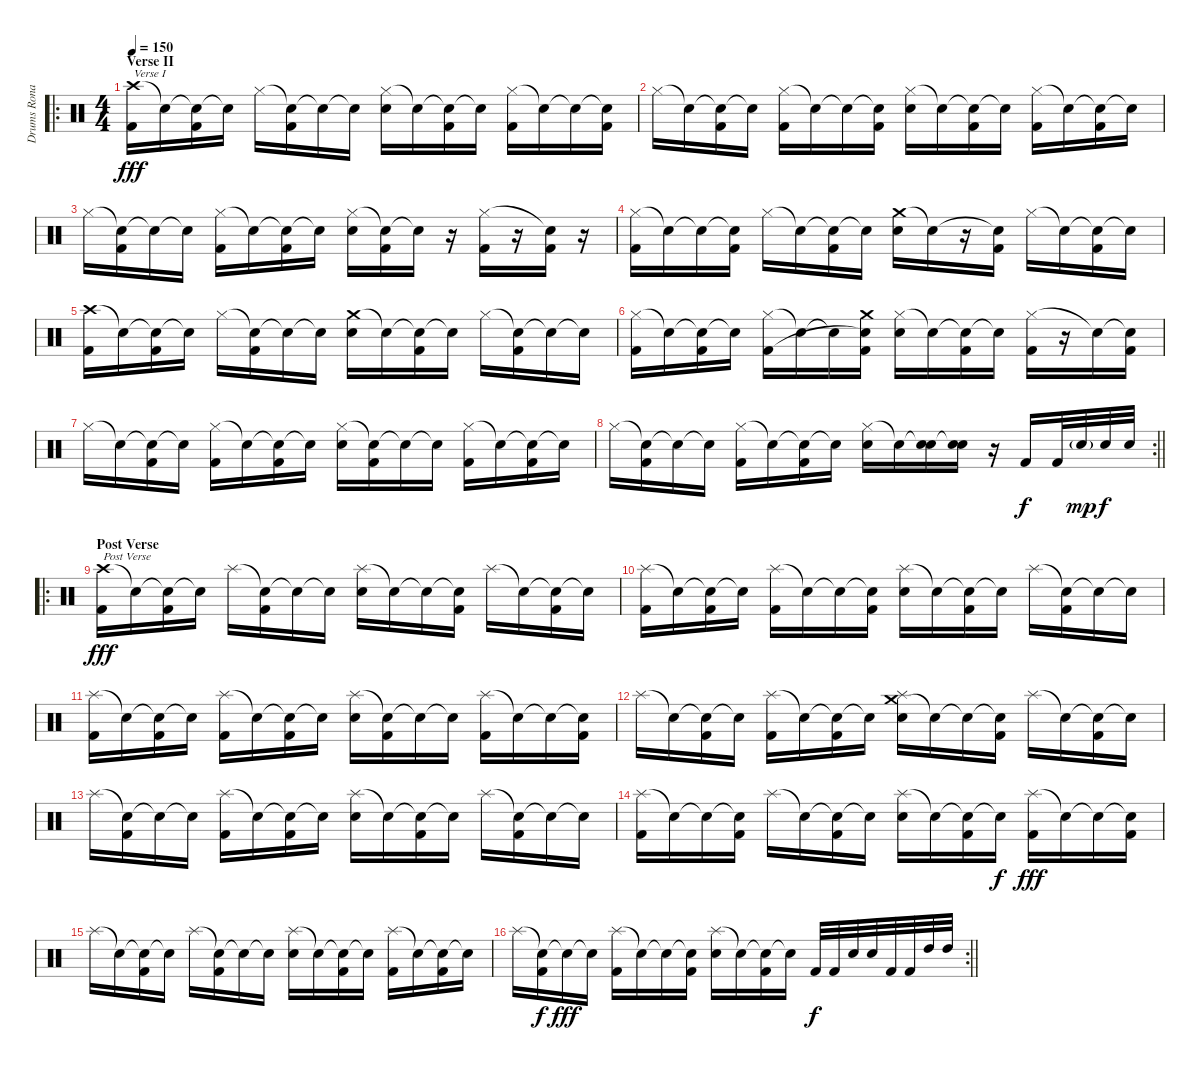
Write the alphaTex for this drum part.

\track ("Drums Ronald Reagen FTW" "Drums Rona") {instrument percussion}
\staff {score}
\articulation defaults
\ro
\ts (4 4)
\section ("" "Verse II")
\tempo 150
\clef neutral
\ks c
("Crash high (hit)" "Kick (hit) 2").16{txt "Verse I" dy fff} "Snare (hit)"{t}.16 ("Snare (hit)"{t} "Kick (hit) 2").16 "Snare (hit)"{t}.16 "Hi-Hat (closed)".16 ("Snare (hit)"{t} "Kick (hit) 2").16 "Snare (hit)"{t}.16 "Snare (hit)"{t}.16 ("Hi-Hat (closed)" "Electric Snare (hit)").16 "Snare (hit)"{t}.16 ("Snare (hit)"{t} "Kick (hit) 2").16 "Snare (hit)"{t}.16 ("Hi-Hat (closed)" "Kick (hit) 2").16 "Snare (hit)"{t}.16 "Snare (hit)"{t}.16 ("Snare (hit)"{t} "Kick (hit) 2").16 |
"Hi-Hat (closed)".16 "Snare (hit)"{t}.16 ("Snare (hit)"{t} "Kick (hit) 2").16 "Snare (hit)"{t}.16 ("Hi-Hat (closed)" "Kick (hit) 2").16 "Snare (hit)"{t}.16 "Snare (hit)"{t}.16 ("Snare (hit)"{t} "Kick (hit) 2").16 ("Hi-Hat (closed)" "Electric Snare (hit)").16 "Snare (hit)"{t}.16 ("Snare (hit)"{t} "Kick (hit) 2").16 "Snare (hit)"{t}.16 ("Hi-Hat (closed)" "Kick (hit) 2").16 "Snare (hit)"{t}.16 ("Snare (hit)"{t} "Kick (hit) 2").16 "Snare (hit)"{t}.16 |
"Hi-Hat (closed)".16 ("Snare (hit)"{t} "Kick (hit) 2").16 "Snare (hit)"{t}.16 "Snare (hit)"{t}.16 ("Hi-Hat (closed)" "Kick (hit) 2").16 "Snare (hit)"{t}.16 ("Snare (hit)"{t} "Kick (hit) 2").16 "Snare (hit)"{t}.16 ("Hi-Hat (closed)" "Electric Snare (hit)").16 ("Snare (hit)"{t} "Kick (hit) 2").16 "Snare (hit)"{t}.16 r.16 ("Hi-Hat (closed)" "Kick (hit) 2").16 r.16 ("Snare (hit)"{t} "Kick (hit) 2").16 r.16 |
("Hi-Hat (closed)" "Kick (hit) 2").16 "Snare (hit)"{t}.16 "Snare (hit)"{t}.16 ("Snare (hit)"{t} "Kick (hit) 2").16 "Hi-Hat (closed)".16 "Snare (hit)"{t}.16 ("Snare (hit)"{t} "Kick (hit) 2").16 "Snare (hit)"{t}.16 ("Crash medium (hit)" "Electric Snare (hit)").16 "Snare (hit)"{t}.16 r.16 ("Snare (hit)"{t} "Kick (hit) 2").16 "Hi-Hat (closed)".16 "Snare (hit)"{t}.16 ("Snare (hit)"{t} "Kick (hit) 2").16 "Snare (hit)"{t}.16 |
("Crash high (hit)" "Kick (hit) 2").16 "Snare (hit)"{t}.16 ("Snare (hit)"{t} "Kick (hit) 2").16 "Snare (hit)"{t}.16 "Hi-Hat (closed)".16 ("Snare (hit)"{t} "Kick (hit) 2").16 "Snare (hit)"{t}.16 "Snare (hit)"{t}.16 ("Crash medium (hit)" "Electric Snare (hit)").16 "Snare (hit)"{t}.16 ("Snare (hit)"{t} "Kick (hit) 2").16 "Snare (hit)"{t}.16 "Hi-Hat (closed)".16 ("Snare (hit)"{t} "Kick (hit) 2").16 "Snare (hit)"{t}.16 "Snare (hit)"{t}.16 |
("Hi-Hat (closed)" "Kick (hit) 2").16 "Snare (hit)"{t}.16 ("Snare (hit)"{t} "Kick (hit) 2").16 "Snare (hit)"{t}.16 ("Hi-Hat (closed)" "Kick (hit) 2").16 "Snare (hit)"{t}.16 "Snare (hit)"{t}.16 ("Crash medium (hit)" "Snare (hit)"{t} "Kick (hit) 2").16 ("Hi-Hat (closed)" "Electric Snare (hit)").16 "Snare (hit)"{t}.16 ("Snare (hit)"{t} "Kick (hit) 2").16 "Snare (hit)"{t}.16 ("Hi-Hat (closed)" "Kick (hit) 2").16 r.16 "Snare (hit)"{t}.16 ("Snare (hit)"{t} "Kick (hit) 2").16 |
"Hi-Hat (closed)".16 "Snare (hit)"{t}.16 ("Snare (hit)"{t} "Kick (hit) 2").16 "Snare (hit)"{t}.16 ("Hi-Hat (closed)" "Kick (hit) 2").16 "Snare (hit)"{t}.16 ("Snare (hit)"{t} "Kick (hit) 2").16 "Snare (hit)"{t}.16 ("Hi-Hat (closed)" "Electric Snare (hit)").16 ("Snare (hit)"{t} "Kick (hit) 2").16 "Snare (hit)"{t}.16 "Snare (hit)"{t}.16 ("Hi-Hat (closed)" "Kick (hit) 2").16 "Snare (hit)"{t}.16 ("Snare (hit)"{t} "Kick (hit) 2").16 "Snare (hit)"{t}.16 |
\rc 2
\barLineRight lightlight "Hi-Hat (closed)".16
("Snare (hit)"{t} "Kick (hit) 2").16 "Snare (hit)"{t}.16 "Snare (hit)"{t}.16 ("Hi-Hat (closed)" "Kick (hit) 2").16 "Snare (hit)"{t}.16 ("Snare (hit)"{t} "Kick (hit) 2").16 "Snare (hit)"{t}.16 ("Hi-Hat (closed)" "Electric Snare (hit)").16 "Snare (hit)"{t}.16 ("Snare (hit)"{t} "Electric Snare (hit)").16 ("Snare (hit)"{t} "Electric Snare (hit)").16 r.16 "Kick (hit) 2".16{dy f} "Kick (hit) 2".32 "Electric Snare (hit)"{g}.32{dy mp} "Electric Snare (hit)".32{dy f} "Electric Snare (hit)".32 |
\ro
\section ("" "Post Verse")
("Crash high (hit)" "Kick (hit) 2").16{txt "Post Verse" dy fff} "Snare (hit)"{t}.16 ("Snare (hit)"{t} "Kick (hit) 2").16 "Snare (hit)"{t}.16 "Splash (hit)".16 ("Snare (hit)"{t} "Kick (hit) 2").16 "Snare (hit)"{t}.16 "Snare (hit)"{t}.16 ("Splash (hit)" "Electric Snare (hit)").16 "Snare (hit)"{t}.16 "Snare (hit)"{t}.16 ("Snare (hit)"{t} "Kick (hit) 2").16 "Splash (hit)".16 "Snare (hit)"{t}.16 ("Snare (hit)"{t} "Kick (hit) 2").16 "Snare (hit)"{t}.16 |
("Splash (hit)" "Kick (hit) 2").16 "Snare (hit)"{t}.16 ("Snare (hit)"{t} "Kick (hit) 2").16 "Snare (hit)"{t}.16 ("Splash (hit)" "Kick (hit) 2").16 "Snare (hit)"{t}.16 "Snare (hit)"{t}.16 ("Snare (hit)"{t} "Kick (hit) 2").16 ("Splash (hit)" "Electric Snare (hit)").16 "Snare (hit)"{t}.16 ("Snare (hit)"{t} "Kick (hit) 2").16 "Snare (hit)"{t}.16 "Splash (hit)".16 ("Snare (hit)"{t} "Kick (hit) 2").16 "Snare (hit)"{t}.16 "Snare (hit)"{t}.16 |
("Splash (hit)" "Kick (hit) 2").16 "Snare (hit)"{t}.16 ("Snare (hit)"{t} "Kick (hit) 2").16 "Snare (hit)"{t}.16 ("Splash (hit)" "Kick (hit) 2").16 "Snare (hit)"{t}.16 ("Snare (hit)"{t} "Kick (hit) 2").16 "Snare (hit)"{t}.16 ("Splash (hit)" "Electric Snare (hit)").16 ("Snare (hit)"{t} "Kick (hit) 2").16 "Snare (hit)"{t}.16 "Snare (hit)"{t}.16 ("Splash (hit)" "Kick (hit) 2").16 "Snare (hit)"{t}.16 "Snare (hit)"{t}.16 ("Snare (hit)"{t} "Kick (hit) 2").16 |
"Splash (hit)".16 "Snare (hit)"{t}.16 ("Snare (hit)"{t} "Kick (hit) 2").16 "Snare (hit)"{t}.16 ("Splash (hit)" "Kick (hit) 2").16 "Snare (hit)"{t}.16 ("Snare (hit)"{t} "Kick (hit) 2").16 "Snare (hit)"{t}.16 ("Crash medium (hit)" "Splash (hit)" "Electric Snare (hit)").16 "Snare (hit)"{t}.16 "Snare (hit)"{t}.16 ("Snare (hit)"{t} "Kick (hit) 2").16 "Splash (hit)".16 "Snare (hit)"{t}.16 ("Snare (hit)"{t} "Kick (hit) 2").16 "Snare (hit)"{t}.16 |
"Splash (hit)".16 ("Snare (hit)"{t} "Kick (hit) 2").16 "Snare (hit)"{t}.16 "Snare (hit)"{t}.16 ("Splash (hit)" "Kick (hit) 2").16 "Snare (hit)"{t}.16 ("Snare (hit)"{t} "Kick (hit) 2").16 "Snare (hit)"{t}.16 ("Splash (hit)" "Electric Snare (hit)").16 "Snare (hit)"{t}.16 ("Snare (hit)"{t} "Kick (hit) 2").16 "Snare (hit)"{t}.16 "Splash (hit)".16 ("Snare (hit)"{t} "Kick (hit) 2").16 "Snare (hit)"{t}.16 "Snare (hit)"{t}.16 |
("Splash (hit)" "Kick (hit) 2").16 "Snare (hit)"{t}.16 "Snare (hit)"{t}.16 ("Snare (hit)"{t} "Kick (hit) 2").16 "Splash (hit)".16 "Snare (hit)"{t}.16 ("Snare (hit)"{t} "Kick (hit) 2").16 "Snare (hit)"{t}.16 ("Splash (hit)" "Electric Snare (hit)").16 "Snare (hit)"{t}.16 ("Snare (hit)"{t} "Kick (hit) 2").16 "Snare (hit)"{t}.16{dy f} ("Splash (hit)" "Kick (hit) 2").16{dy fff} "Snare (hit)"{t}.16 "Snare (hit)"{t}.16 ("Snare (hit)"{t} "Kick (hit) 2").16 |
"Splash (hit)".16 "Snare (hit)"{t}.16 ("Snare (hit)"{t} "Kick (hit) 2").16 "Snare (hit)"{t}.16 "Splash (hit)".16 ("Snare (hit)"{t} "Kick (hit) 2").16 "Snare (hit)"{t}.16 "Snare (hit)"{t}.16 ("Splash (hit)" "Electric Snare (hit)").16 "Snare (hit)"{t}.16 ("Snare (hit)"{t} "Kick (hit) 2").16 "Snare (hit)"{t}.16 ("Splash (hit)" "Kick (hit) 2").16 "Snare (hit)"{t}.16 ("Snare (hit)"{t} "Kick (hit) 2").16 "Snare (hit)"{t}.16 |
\rc 2
\barLineRight lightlight "Splash (hit)".16
("Snare (hit)"{t} "Kick (hit) 2").16{dy f} "Snare (hit)"{t}.16{dy fff} "Snare (hit)"{t}.16 ("Splash (hit)" "Kick (hit) 2").16 "Snare (hit)"{t}.16 "Snare (hit)"{t}.16 ("Snare (hit)"{t} "Kick (hit) 2").16 ("Splash (hit)" "Electric Snare (hit)").16 "Snare (hit)"{t}.16 ("Snare (hit)"{t} "Kick (hit) 2").16 "Snare (hit)"{t}.16 "Kick (hit) 2".32{dy f} "Kick (hit) 2".32 "Electric Snare (hit)".32 "Electric Snare (hit)".32 "Kick (hit) 2".32 "Kick (hit) 2".32 "High Tom (hit)".32 "High Tom (hit)".32
